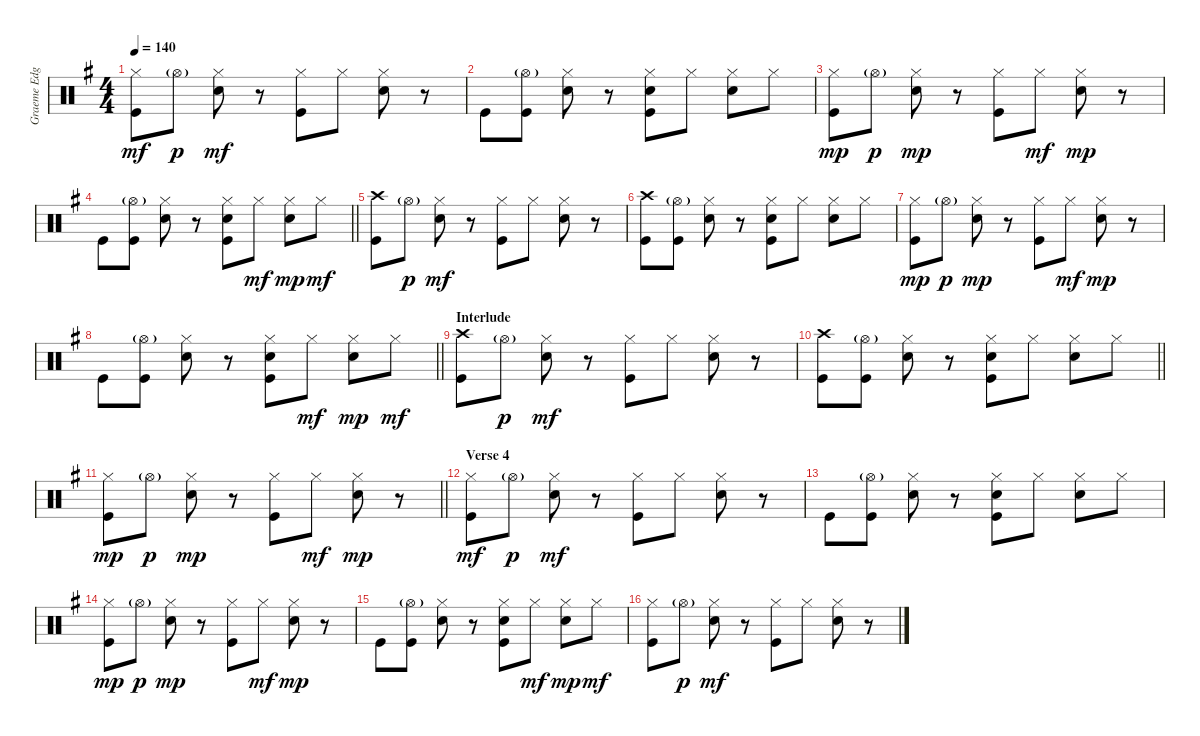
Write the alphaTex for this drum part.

\track ("Graeme Edge" "Graeme Edg") {instrument percussion}
\staff {score}
\articulation defaults
\ts (4 4)
\section ("" "")
\tempo 140
\clef neutral
\ks g
("Hi-Hat (closed)" "Kick (hit)").8{dy mf} "Hi-Hat (open)"{g}.8{dy p} ("Hi-Hat (closed)" "Snare (hit) 2").8{dy mf} r.8 ("Hi-Hat (closed)" "Kick (hit)").8 "Hi-Hat (closed)".8 ("Hi-Hat (closed)" "Snare (hit) 2").8 r.8 |
"Kick (hit)".8 ("Hi-Hat (open)"{g} "Kick (hit)").8 ("Hi-Hat (closed)" "Snare (hit) 2").8 r.8 ("Hi-Hat (closed)" "Hand Clap (hit)" "Kick (hit)").8 "Hi-Hat (closed)".8 ("Hi-Hat (closed)" "Snare (hit) 2").8 "Hi-Hat (closed)".8 |
("Hi-Hat (closed)" "Kick (hit)").8{dy mp} "Hi-Hat (open)"{g}.8{dy p} ("Hi-Hat (closed)" "Snare (hit) 2").8{dy mp} r.8 ("Hi-Hat (closed)" "Kick (hit)").8 "Hi-Hat (closed)".8{dy mf} ("Hi-Hat (closed)" "Snare (hit) 2").8{dy mp} r.8 |
\barLineRight lightlight "Kick (hit)".8
("Hi-Hat (open)"{g} "Kick (hit)").8 ("Hi-Hat (closed)" "Snare (hit) 2").8 r.8 ("Hi-Hat (closed)" "Hand Clap (hit)" "Kick (hit)").8 "Hi-Hat (closed)".8{dy mf} ("Hi-Hat (closed)" "Snare (hit) 2").8{dy mp} "Hi-Hat (closed)".8{dy mf} |
\section ("" "")
("Crash high (hit)" "Kick (hit)").8 "Hi-Hat (open)"{g}.8{dy p} ("Hi-Hat (closed)" "Snare (hit) 2").8{dy mf} r.8 ("Hi-Hat (closed)" "Kick (hit)").8 "Hi-Hat (closed)".8 ("Hi-Hat (closed)" "Snare (hit) 2").8 r.8 |
("Crash high (hit)" "Kick (hit)").8 ("Hi-Hat (open)"{g} "Kick (hit)").8 ("Hi-Hat (closed)" "Snare (hit) 2").8 r.8 ("Hi-Hat (closed)" "Hand Clap (hit)" "Kick (hit)").8 "Hi-Hat (closed)".8 ("Hi-Hat (closed)" "Snare (hit) 2").8 "Hi-Hat (closed)".8 |
("Hi-Hat (closed)" "Kick (hit)").8{dy mp} "Hi-Hat (open)"{g}.8{dy p} ("Hi-Hat (closed)" "Snare (hit) 2").8{dy mp} r.8 ("Hi-Hat (closed)" "Kick (hit)").8 "Hi-Hat (closed)".8{dy mf} ("Hi-Hat (closed)" "Snare (hit) 2").8{dy mp} r.8 |
\barLineRight lightlight "Kick (hit)".8
("Hi-Hat (open)"{g} "Kick (hit)").8 ("Hi-Hat (closed)" "Snare (hit) 2").8 r.8 ("Hi-Hat (closed)" "Hand Clap (hit)" "Kick (hit)").8 "Hi-Hat (closed)".8{dy mf} ("Hi-Hat (closed)" "Snare (hit) 2").8{dy mp} "Hi-Hat (closed)".8{dy mf} |
\section ("" "Interlude")
("Crash high (hit)" "Kick (hit)").8 "Hi-Hat (open)"{g}.8{dy p} ("Hi-Hat (closed)" "Snare (hit) 2").8{dy mf} r.8 ("Hi-Hat (closed)" "Kick (hit)").8 "Hi-Hat (closed)".8 ("Hi-Hat (closed)" "Snare (hit) 2").8 r.8 |
\barLineRight lightlight
("Crash high (hit)" "Kick (hit)").8 ("Hi-Hat (open)"{g} "Kick (hit)").8 ("Hi-Hat (closed)" "Snare (hit) 2").8 r.8 ("Hi-Hat (closed)" "Hand Clap (hit)" "Kick (hit)").8 "Hi-Hat (closed)".8 ("Hi-Hat (closed)" "Snare (hit) 2").8 "Hi-Hat (closed)".8 |
\barLineRight lightlight
("Hi-Hat (closed)" "Kick (hit)").8{dy mp} "Hi-Hat (open)"{g}.8{dy p} ("Hi-Hat (closed)" "Snare (hit) 2").8{dy mp} r.8 ("Hi-Hat (closed)" "Kick (hit)").8 "Hi-Hat (closed)".8{dy mf} ("Hi-Hat (closed)" "Snare (hit) 2").8{dy mp} r.8 |
\section ("" "Verse 4")
("Hi-Hat (closed)" "Kick (hit)").8{dy mf} "Hi-Hat (open)"{g}.8{dy p} ("Hi-Hat (closed)" "Snare (hit) 2").8{dy mf} r.8 ("Hi-Hat (closed)" "Kick (hit)").8 "Hi-Hat (closed)".8 ("Hi-Hat (closed)" "Snare (hit) 2").8 r.8 |
"Kick (hit)".8 ("Hi-Hat (open)"{g} "Kick (hit)").8 ("Hi-Hat (closed)" "Snare (hit) 2").8 r.8 ("Hi-Hat (closed)" "Hand Clap (hit)" "Kick (hit)").8 "Hi-Hat (closed)".8 ("Hi-Hat (closed)" "Snare (hit) 2").8 "Hi-Hat (closed)".8 |
("Hi-Hat (closed)" "Kick (hit)").8{dy mp} "Hi-Hat (open)"{g}.8{dy p} ("Hi-Hat (closed)" "Snare (hit) 2").8{dy mp} r.8 ("Hi-Hat (closed)" "Kick (hit)").8 "Hi-Hat (closed)".8{dy mf} ("Hi-Hat (closed)" "Snare (hit) 2").8{dy mp} r.8 |
"Kick (hit)".8 ("Hi-Hat (open)"{g} "Kick (hit)").8 ("Hi-Hat (closed)" "Snare (hit) 2").8 r.8 ("Hi-Hat (closed)" "Hand Clap (hit)" "Kick (hit)").8 "Hi-Hat (closed)".8{dy mf} ("Hi-Hat (closed)" "Snare (hit) 2").8{dy mp} "Hi-Hat (closed)".8{dy mf} |
("Hi-Hat (closed)" "Kick (hit)").8 "Hi-Hat (open)"{g}.8{dy p} ("Hi-Hat (closed)" "Snare (hit) 2").8{dy mf} r.8 ("Hi-Hat (closed)" "Kick (hit)").8 "Hi-Hat (closed)".8 ("Hi-Hat (closed)" "Snare (hit) 2").8 r.8
